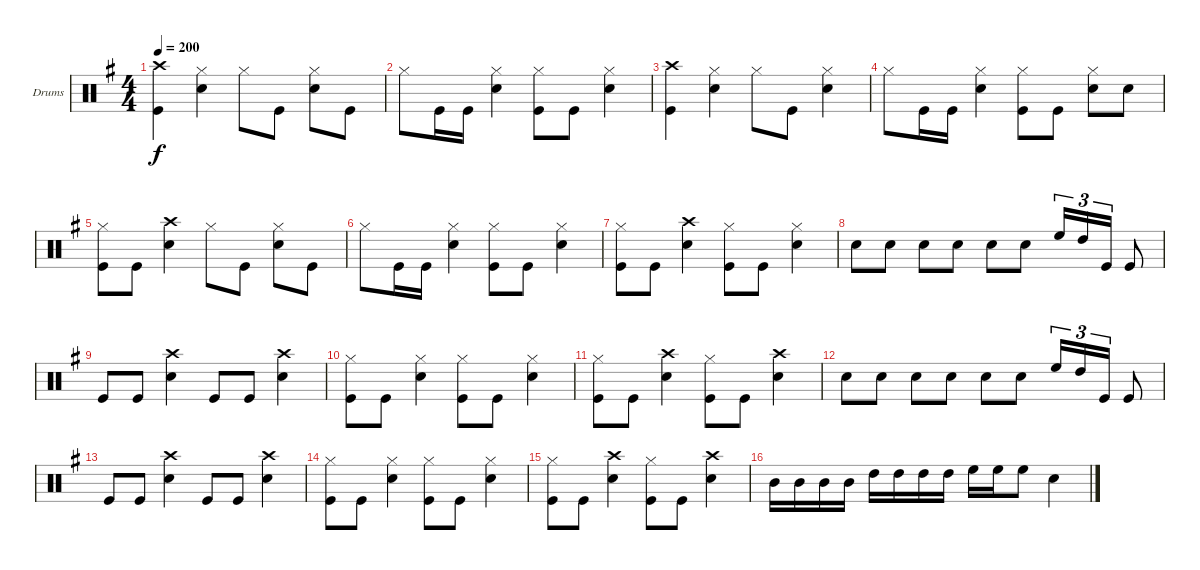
\bracketExtendMode groupsimilarinstruments
\firstSystemTrackNameOrientation horizontal
\otherSystemsTrackNameOrientation horizontal
\track ("Drumkit" "Drums") {instrument percussion}
\staff {score}
\articulation defaults
\ts (4 4)
\tempo 200
\clef neutral
\ks g
("Kick (hit)" "Crash high (hit)").4{dy f} ("Hi-Hat (closed)" "Snare (hit) 2").4 "Hi-Hat (closed)".8 "Kick (hit)".8 ("Snare (hit) 2" "Hi-Hat (closed)").8 "Kick (hit)".8 |
"Hi-Hat (closed)".8 "Kick (hit)".16 "Kick (hit)".16 ("Snare (hit) 2" "Hi-Hat (closed)").4 ("Kick (hit)" "Hi-Hat (closed)").8 "Kick (hit)".8 ("Snare (hit) 2" "Hi-Hat (closed)").4 |
("Kick (hit)" "Crash high (hit)").4 ("Hi-Hat (closed)" "Snare (hit) 2").4 "Hi-Hat (closed)".8 "Kick (hit)".8 ("Snare (hit) 2" "Hi-Hat (closed)").4 |
"Hi-Hat (closed)".8 "Kick (hit)".16 "Kick (hit)".16 ("Snare (hit) 2" "Hi-Hat (closed)").4 ("Kick (hit)" "Hi-Hat (closed)").8 "Kick (hit)".8 ("Snare (hit) 2" "Hi-Hat (closed)").8 "Snare (hit) 2".8 |
("Kick (hit)" "Hi-Hat (closed)").8 "Kick (hit)".8 ("Crash high (hit)" "Snare (hit) 2").4 "Hi-Hat (closed)".8 "Kick (hit)".8 ("Snare (hit) 2" "Hi-Hat (closed)").8 "Kick (hit)".8 |
"Hi-Hat (closed)".8 "Kick (hit)".16 "Kick (hit)".16 ("Snare (hit) 2" "Hi-Hat (closed)").4 ("Kick (hit)" "Hi-Hat (closed)").8 "Kick (hit)".8 ("Snare (hit) 2" "Hi-Hat (closed)").4 |
("Kick (hit)" "Hi-Hat (closed)").8 "Kick (hit)".8 ("Snare (hit) 2" "Crash high (hit)").4 ("Kick (hit)" "Hi-Hat (closed)").8 "Kick (hit)".8 ("Snare (hit) 2" "Hi-Hat (closed)").4 |
"Snare (hit) 2".8 "Snare (hit) 2".8 "Snare (hit) 2".8 "Snare (hit) 2".8 "Snare (hit) 2".8 "Snare (hit) 2".8 "High Floor Tom (hit)".16{tu (3 2)} "High Tom (hit)".16{tu (3 2)} "Kick (hit)".16{tu (3 2)} "Kick (hit)".8 |
"Kick (hit)".8 "Kick (hit)".8 ("Crash high (hit)" "Snare (hit) 2").4 "Kick (hit)".8 "Kick (hit)".8 ("Crash high (hit)" "Snare (hit) 2").4 |
("Kick (hit)" "Hi-Hat (closed)").8 "Kick (hit)".8 ("Snare (hit) 2" "Hi-Hat (closed)").4 ("Kick (hit)" "Hi-Hat (closed)").8 "Kick (hit)".8 ("Snare (hit) 2" "Hi-Hat (closed)").4 |
("Kick (hit)" "Hi-Hat (closed)").8 "Kick (hit)".8 ("Snare (hit) 2" "Crash high (hit)").4 ("Kick (hit)" "Hi-Hat (closed)").8 "Kick (hit)".8 ("Crash high (hit)" "Snare (hit) 2").4 |
"Snare (hit) 2".8 "Snare (hit) 2".8 "Snare (hit) 2".8 "Snare (hit) 2".8 "Snare (hit) 2".8 "Snare (hit) 2".8 "High Floor Tom (hit)".16{tu (3 2)} "High Tom (hit)".16{tu (3 2)} "Kick (hit)".16{tu (3 2)} "Kick (hit)".8 |
"Kick (hit)".8 "Kick (hit)".8 ("Crash high (hit)" "Snare (hit) 2").4 "Kick (hit)".8 "Kick (hit)".8 ("Crash high (hit)" "Snare (hit) 2").4 |
("Kick (hit)" "Hi-Hat (closed)").8 "Kick (hit)".8 ("Snare (hit) 2" "Hi-Hat (closed)").4 ("Kick (hit)" "Hi-Hat (closed)").8 "Kick (hit)".8 ("Snare (hit) 2" "Hi-Hat (closed)").4 |
("Kick (hit)" "Hi-Hat (closed)").8 "Kick (hit)".8 ("Snare (hit) 2" "Crash high (hit)").4 ("Kick (hit)" "Hi-Hat (closed)").8 "Kick (hit)".8 ("Crash high (hit)" "Snare (hit) 2").4 |
"Mid Tom (hit)".16 "Mid Tom (hit)".16 "Mid Tom (hit)".16 "Mid Tom (hit)".16 "High Tom (hit)".16 "High Tom (hit)".16 "High Tom (hit)".16 "High Tom (hit)".16 "High Floor Tom (hit)".16 "High Floor Tom (hit)".16 "High Floor Tom (hit)".8 "Snare (hit) 2".4
